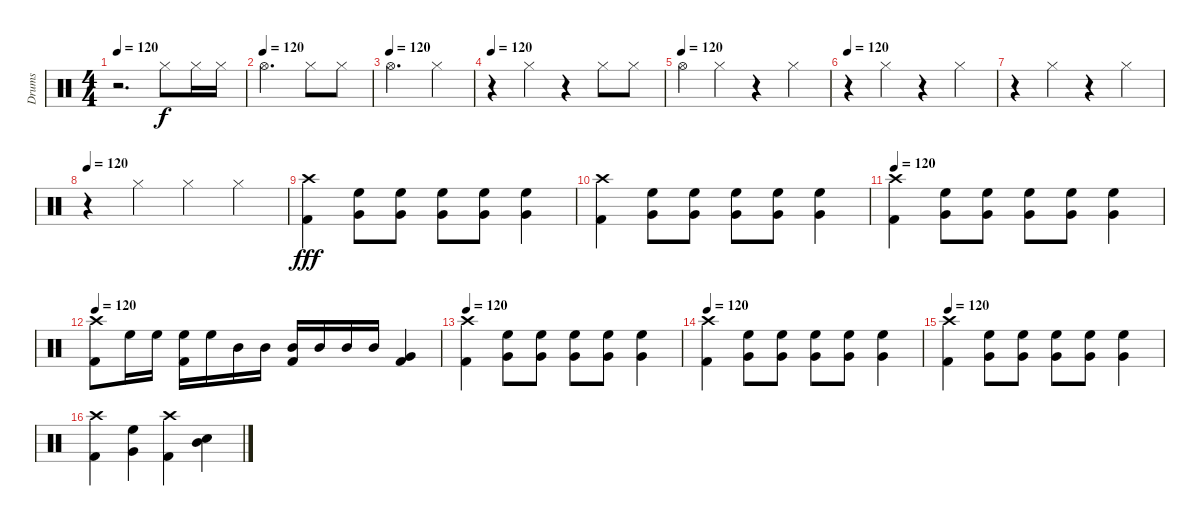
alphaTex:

\track ("Drums" "Drums") {instrument percussion}
\staff {score}
\articulation defaults
\ts (4 4)
\tempo 120
\clef neutral
\ks c
r.2{d dy f} "Hi-Hat (closed)".8 "Hi-Hat (closed)".16 "Hi-Hat (closed)".16 |
\tempo (120)
"Hi-Hat (open)".2{d} "Hi-Hat (closed)".8 "Hi-Hat (closed)".8 |
\tempo (120)
"Hi-Hat (open)".2{d} "Hi-Hat (closed)".4 |
\tempo 120
r.4 "Hi-Hat (closed)".4 r.4 "Hi-Hat (closed)".8 "Hi-Hat (closed)".8 |
\tempo (120)
"Hi-Hat (open)".4 "Hi-Hat (closed)".4 r.4 "Hi-Hat (closed)".4 |
\tempo 120
r.4 "Hi-Hat (closed)".4 r.4 "Hi-Hat (closed)".4 |
r.4 "Hi-Hat (closed)".4 r.4 "Hi-Hat (closed)".4 |
\tempo 120
r.4 "Hi-Hat (closed)".4 "Hi-Hat (closed)".4 "Hi-Hat (closed)".4 |
("Kick (hit) 2" "Crash high (hit)").4{dy fff} ("Very Low Tom (hit)" "High Floor Tom (hit)").8 ("Very Low Tom (hit)" "High Floor Tom (hit)").8 ("Very Low Tom (hit)" "High Floor Tom (hit)").8 ("Very Low Tom (hit)" "High Floor Tom (hit)").8 ("Very Low Tom (hit)" "High Floor Tom (hit)").4 |
("Kick (hit) 2" "Crash high (hit)").4 ("Very Low Tom (hit)" "High Floor Tom (hit)").8 ("Very Low Tom (hit)" "High Floor Tom (hit)").8 ("Very Low Tom (hit)" "High Floor Tom (hit)").8 ("Very Low Tom (hit)" "High Floor Tom (hit)").8 ("Very Low Tom (hit)" "High Floor Tom (hit)").4 |
\tempo 120
("Kick (hit) 2" "Crash high (hit)").4 ("Very Low Tom (hit)" "High Floor Tom (hit)").8 ("Very Low Tom (hit)" "High Floor Tom (hit)").8 ("Very Low Tom (hit)" "High Floor Tom (hit)").8 ("Very Low Tom (hit)" "High Floor Tom (hit)").8 ("Very Low Tom (hit)" "High Floor Tom (hit)").4 |
\tempo 120
("Kick (hit) 2" "Crash high (hit)").8 "High Floor Tom (hit)".16 "High Floor Tom (hit)".16 ("Kick (hit) 2" "High Floor Tom (hit)").16 "High Floor Tom (hit)".16 "Mid Tom (hit)".16 "Mid Tom (hit)".16 ("Kick (hit) 2" "Mid Tom (hit)").16 "Mid Tom (hit)".16 "Mid Tom (hit)".16 "Mid Tom (hit)".16 ("Kick (hit) 2" "Very Low Tom (hit)").4 |
\tempo 120
("Kick (hit) 2" "Crash high (hit)").4 ("Very Low Tom (hit)" "High Floor Tom (hit)").8 ("Very Low Tom (hit)" "High Floor Tom (hit)").8 ("Very Low Tom (hit)" "High Floor Tom (hit)").8 ("Very Low Tom (hit)" "High Floor Tom (hit)").8 ("Very Low Tom (hit)" "High Floor Tom (hit)").4 |
\tempo 120
("Kick (hit) 2" "Crash high (hit)").4 ("Very Low Tom (hit)" "High Floor Tom (hit)").8 ("Very Low Tom (hit)" "High Floor Tom (hit)").8 ("Very Low Tom (hit)" "High Floor Tom (hit)").8 ("Very Low Tom (hit)" "High Floor Tom (hit)").8 ("Very Low Tom (hit)" "High Floor Tom (hit)").4 |
\tempo 120
("Kick (hit) 2" "Crash high (hit)").4 ("Very Low Tom (hit)" "High Floor Tom (hit)").8 ("Very Low Tom (hit)" "High Floor Tom (hit)").8 ("Very Low Tom (hit)" "High Floor Tom (hit)").8 ("Very Low Tom (hit)" "High Floor Tom (hit)").8 ("Very Low Tom (hit)" "High Floor Tom (hit)").4 |
("Kick (hit) 2" "Crash high (hit)").4 ("Very Low Tom (hit)" "High Floor Tom (hit)").4 ("Kick (hit) 2" "Crash high (hit)").4 ("Snare (hit) 2" "Mid Tom (hit)").4
